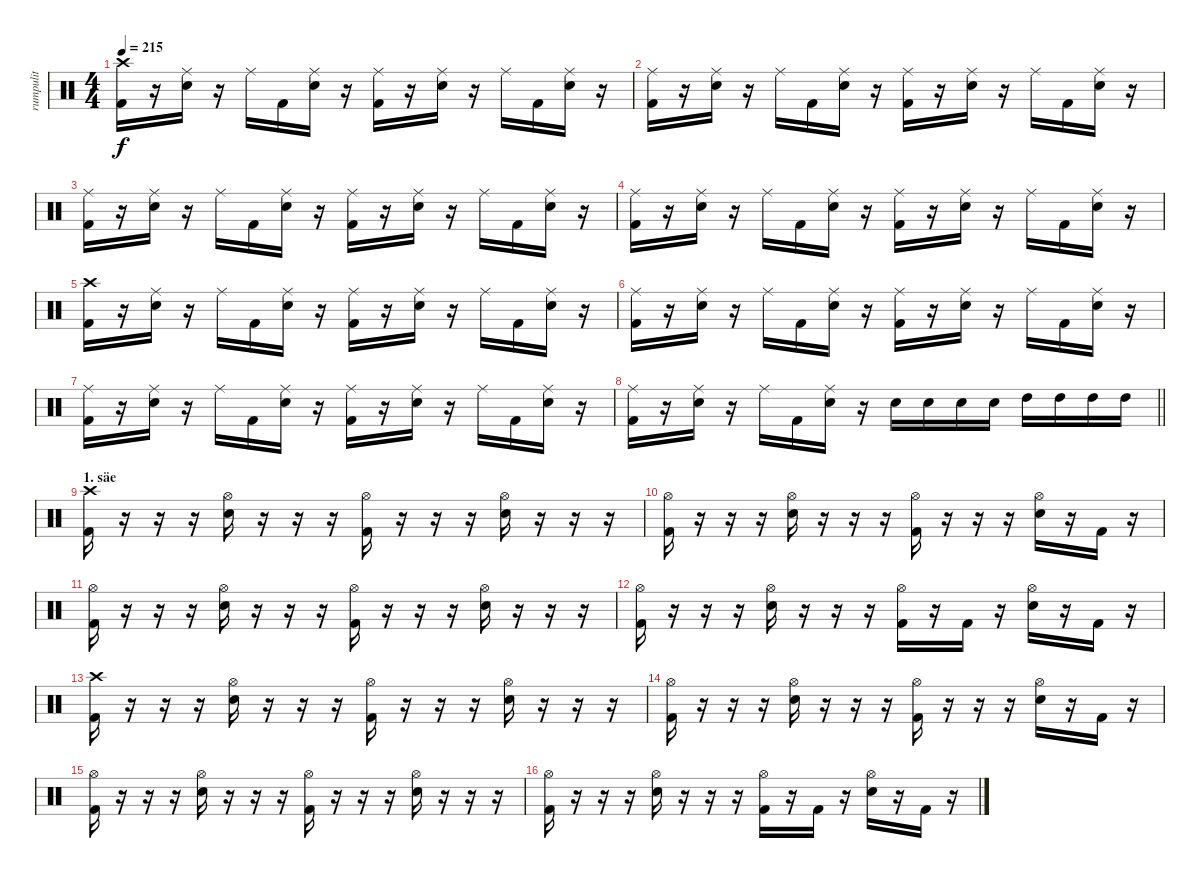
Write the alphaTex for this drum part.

\track ("rumpulit" "rumpulit") {instrument percussion}
\staff {score}
\articulation defaults
\ts (4 4)
\tempo 215
\clef neutral
\ks c
("Crash high (hit)" "Kick (hit) 2").16{dy f} r.16 ("Ride (middle)" "Electric Snare (hit)").16 r.16 "Ride (middle)".16 "Kick (hit) 2".16 ("Ride (middle)" "Electric Snare (hit)").16 r.16 ("Ride (middle)" "Kick (hit) 2").16 r.16 ("Ride (middle)" "Electric Snare (hit)").16 r.16 "Ride (middle)".16 "Kick (hit) 2".16 ("Ride (middle)" "Electric Snare (hit)").16 r.16 |
("Ride (middle)" "Kick (hit) 2").16 r.16 ("Ride (middle)" "Electric Snare (hit)").16 r.16 "Ride (middle)".16 "Kick (hit) 2".16 ("Ride (middle)" "Electric Snare (hit)").16 r.16 ("Ride (middle)" "Kick (hit) 2").16 r.16 ("Ride (middle)" "Electric Snare (hit)").16 r.16 "Ride (middle)".16 "Kick (hit) 2".16 ("Ride (middle)" "Electric Snare (hit)").16 r.16 |
("Ride (middle)" "Kick (hit) 2").16 r.16 ("Ride (middle)" "Electric Snare (hit)").16 r.16 "Ride (middle)".16 "Kick (hit) 2".16 ("Ride (middle)" "Electric Snare (hit)").16 r.16 ("Ride (middle)" "Kick (hit) 2").16 r.16 ("Ride (middle)" "Electric Snare (hit)").16 r.16 "Ride (middle)".16 "Kick (hit) 2".16 ("Ride (middle)" "Electric Snare (hit)").16 r.16 |
("Ride (middle)" "Kick (hit) 2").16 r.16 ("Ride (middle)" "Electric Snare (hit)").16 r.16 "Ride (middle)".16 "Kick (hit) 2".16 ("Ride (middle)" "Electric Snare (hit)").16 r.16 ("Ride (middle)" "Kick (hit) 2").16 r.16 ("Ride (middle)" "Electric Snare (hit)").16 r.16 "Ride (middle)".16 "Kick (hit) 2".16 ("Ride (middle)" "Electric Snare (hit)").16 r.16 |
("Crash high (hit)" "Kick (hit) 2").16 r.16 ("Ride (middle)" "Electric Snare (hit)").16 r.16 "Ride (middle)".16 "Kick (hit) 2".16 ("Ride (middle)" "Electric Snare (hit)").16 r.16 ("Ride (middle)" "Kick (hit) 2").16 r.16 ("Ride (middle)" "Electric Snare (hit)").16 r.16 "Ride (middle)".16 "Kick (hit) 2".16 ("Ride (middle)" "Electric Snare (hit)").16 r.16 |
("Ride (middle)" "Kick (hit) 2").16 r.16 ("Ride (middle)" "Electric Snare (hit)").16 r.16 "Ride (middle)".16 "Kick (hit) 2".16 ("Ride (middle)" "Electric Snare (hit)").16 r.16 ("Ride (middle)" "Kick (hit) 2").16 r.16 ("Ride (middle)" "Electric Snare (hit)").16 r.16 "Ride (middle)".16 "Kick (hit) 2".16 ("Ride (middle)" "Electric Snare (hit)").16 r.16 |
("Ride (middle)" "Kick (hit) 2").16 r.16 ("Ride (middle)" "Electric Snare (hit)").16 r.16 "Ride (middle)".16 "Kick (hit) 2".16 ("Ride (middle)" "Electric Snare (hit)").16 r.16 ("Ride (middle)" "Kick (hit) 2").16 r.16 ("Ride (middle)" "Electric Snare (hit)").16 r.16 "Ride (middle)".16 "Kick (hit) 2".16 ("Ride (middle)" "Electric Snare (hit)").16 r.16 |
\barLineRight lightlight
("Ride (middle)" "Kick (hit) 2").16 r.16 ("Ride (middle)" "Electric Snare (hit)").16 r.16 "Ride (middle)".16 "Kick (hit) 2".16 ("Ride (middle)" "Electric Snare (hit)").16 r.16 "Electric Snare (hit)".16 "Electric Snare (hit)".16 "Electric Snare (hit)".16 "Electric Snare (hit)".16 "High Tom (hit)".16 "High Tom (hit)".16 "High Tom (hit)".16 "High Tom (hit)".16 |
\section ("" "1. säe")
("Crash high (hit)" "Kick (hit) 2").16 r.16 r.16 r.16 ("Hi-Hat (open)" "Electric Snare (hit)").16 r.16 r.16 r.16 ("Hi-Hat (open)" "Kick (hit) 2").16 r.16 r.16 r.16 ("Hi-Hat (open)" "Electric Snare (hit)").16 r.16 r.16 r.16 |
("Hi-Hat (open)" "Kick (hit) 2").16 r.16 r.16 r.16 ("Hi-Hat (open)" "Electric Snare (hit)").16 r.16 r.16 r.16 ("Hi-Hat (open)" "Kick (hit) 2").16 r.16 r.16 r.16 ("Hi-Hat (open)" "Electric Snare (hit)").16 r.16 "Kick (hit) 2".16 r.16 |
("Hi-Hat (open)" "Kick (hit) 2").16 r.16 r.16 r.16 ("Hi-Hat (open)" "Electric Snare (hit)").16 r.16 r.16 r.16 ("Hi-Hat (open)" "Kick (hit) 2").16 r.16 r.16 r.16 ("Hi-Hat (open)" "Electric Snare (hit)").16 r.16 r.16 r.16 |
("Hi-Hat (open)" "Kick (hit) 2").16 r.16 r.16 r.16 ("Hi-Hat (open)" "Electric Snare (hit)").16 r.16 r.16 r.16 ("Hi-Hat (open)" "Kick (hit) 2").16 r.16 "Kick (hit) 2".16 r.16 ("Hi-Hat (open)" "Electric Snare (hit)").16 r.16 "Kick (hit) 2".16 r.16 |
("Crash high (hit)" "Kick (hit) 2").16 r.16 r.16 r.16 ("Hi-Hat (open)" "Electric Snare (hit)").16 r.16 r.16 r.16 ("Hi-Hat (open)" "Kick (hit) 2").16 r.16 r.16 r.16 ("Hi-Hat (open)" "Electric Snare (hit)").16 r.16 r.16 r.16 |
("Hi-Hat (open)" "Kick (hit) 2").16 r.16 r.16 r.16 ("Hi-Hat (open)" "Electric Snare (hit)").16 r.16 r.16 r.16 ("Hi-Hat (open)" "Kick (hit) 2").16 r.16 r.16 r.16 ("Hi-Hat (open)" "Electric Snare (hit)").16 r.16 "Kick (hit) 2".16 r.16 |
("Hi-Hat (open)" "Kick (hit) 2").16 r.16 r.16 r.16 ("Hi-Hat (open)" "Electric Snare (hit)").16 r.16 r.16 r.16 ("Hi-Hat (open)" "Kick (hit) 2").16 r.16 r.16 r.16 ("Hi-Hat (open)" "Electric Snare (hit)").16 r.16 r.16 r.16 |
("Hi-Hat (open)" "Kick (hit) 2").16 r.16 r.16 r.16 ("Hi-Hat (open)" "Electric Snare (hit)").16 r.16 r.16 r.16 ("Hi-Hat (open)" "Kick (hit) 2").16 r.16 "Kick (hit) 2".16 r.16 ("Hi-Hat (open)" "Electric Snare (hit)").16 r.16 "Kick (hit) 2".16 r.16
